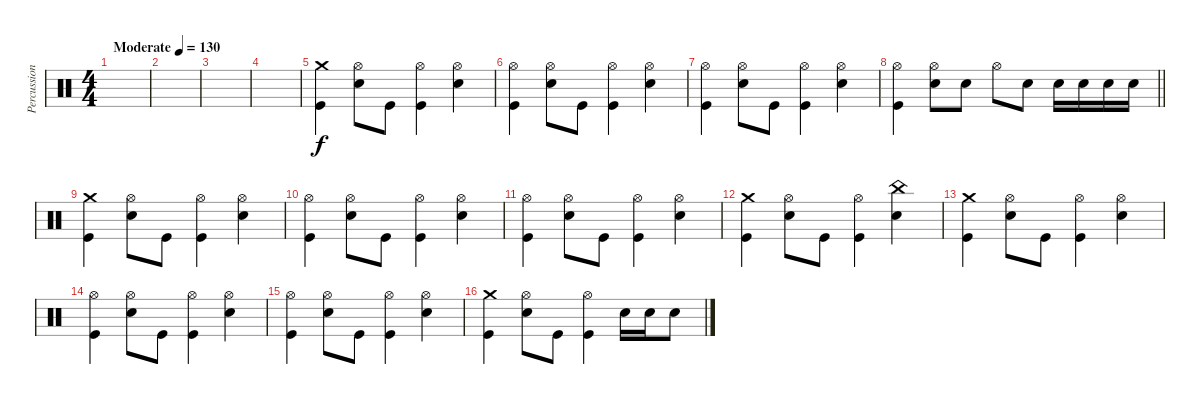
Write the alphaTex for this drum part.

\track ("Percussion" "Percussion") {instrument percussion}
\staff {score}
\articulation defaults
\ts (4 4)
\tempo (130 "Moderate")
\clef neutral
\ks c
|
|
|
|
("Crash medium (hit)" "Kick (hit)").4 ("Hi-Hat (open)" "Snare (hit) 2").8 "Kick (hit)".8 ("Hi-Hat (open)" "Kick (hit)").4 ("Hi-Hat (open)" "Snare (hit) 2").4 |
("Hi-Hat (open)" "Kick (hit)").4 ("Hi-Hat (open)" "Snare (hit) 2").8 "Kick (hit)".8 ("Hi-Hat (open)" "Kick (hit)").4 ("Hi-Hat (open)" "Snare (hit) 2").4 |
("Hi-Hat (open)" "Kick (hit)").4 ("Hi-Hat (open)" "Snare (hit) 2").8 "Kick (hit)".8 ("Hi-Hat (open)" "Kick (hit)").4 ("Hi-Hat (open)" "Snare (hit) 2").4 |
\barLineRight lightlight
("Hi-Hat (open)" "Kick (hit)").4 ("Hi-Hat (open)" "Snare (hit) 2").8 "Snare (hit) 2".8 "Hi-Hat (open)".8 "Snare (hit) 2".8 "Snare (hit) 2".16 "Snare (hit) 2".16 "Snare (hit) 2".16 "Snare (hit) 2".16 |
("Crash medium (hit)" "Kick (hit)").4 ("Hi-Hat (open)" "Snare (hit) 2").8 "Kick (hit)".8 ("Hi-Hat (open)" "Kick (hit)").4 ("Hi-Hat (open)" "Snare (hit) 2").4 |
("Hi-Hat (open)" "Kick (hit)").4 ("Hi-Hat (open)" "Snare (hit) 2").8 "Kick (hit)".8 ("Hi-Hat (open)" "Kick (hit)").4 ("Hi-Hat (open)" "Snare (hit) 2").4 |
("Hi-Hat (open)" "Kick (hit)").4 ("Hi-Hat (open)" "Snare (hit) 2").8 "Kick (hit)".8 ("Hi-Hat (open)" "Kick (hit)").4 ("Hi-Hat (open)" "Snare (hit) 2").4 |
("Crash medium (hit)" "Kick (hit)").4 ("Hi-Hat (open)" "Snare (hit) 2").8 "Kick (hit)".8 ("Hi-Hat (open)" "Kick (hit)").4 ("China (hit)" "Snare (hit) 2").4 |
("Crash medium (hit)" "Kick (hit)").4 ("Hi-Hat (open)" "Snare (hit) 2").8 "Kick (hit)".8 ("Hi-Hat (open)" "Kick (hit)").4 ("Hi-Hat (open)" "Snare (hit) 2").4 |
("Hi-Hat (open)" "Kick (hit)").4 ("Hi-Hat (open)" "Snare (hit) 2").8 "Kick (hit)".8 ("Hi-Hat (open)" "Kick (hit)").4 ("Hi-Hat (open)" "Snare (hit) 2").4 |
("Hi-Hat (open)" "Kick (hit)").4 ("Hi-Hat (open)" "Snare (hit) 2").8 "Kick (hit)".8 ("Hi-Hat (open)" "Kick (hit)").4 ("Hi-Hat (open)" "Snare (hit) 2").4 |
("Crash medium (hit)" "Kick (hit)").4 ("Hi-Hat (open)" "Snare (hit) 2").8 "Kick (hit)".8 ("Hi-Hat (open)" "Kick (hit)").4 "Snare (hit) 2".16 "Snare (hit) 2".16 "Snare (hit) 2".8
